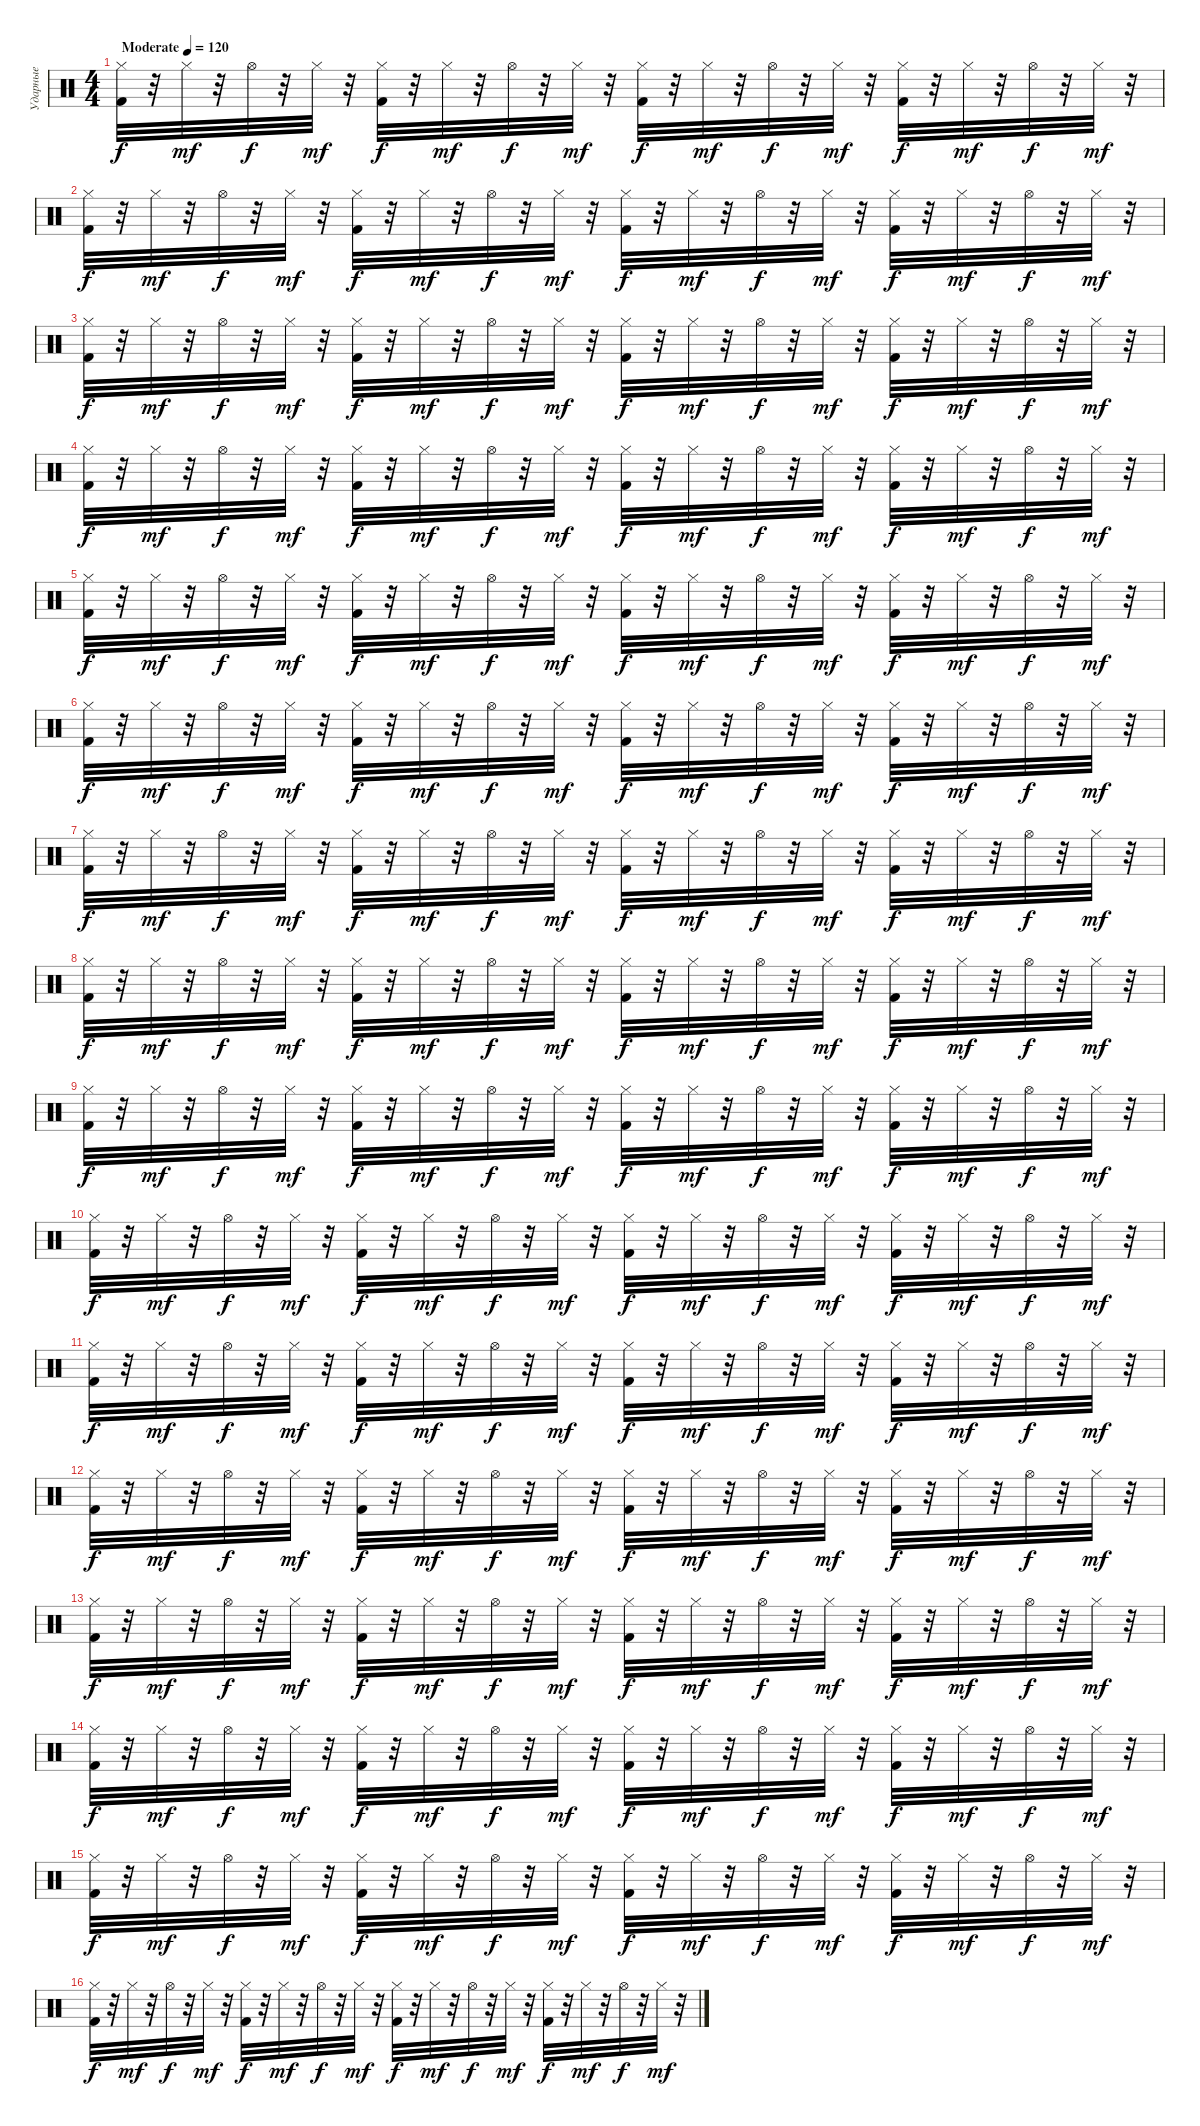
\track ("Ударные" "Ударные") {instrument percussion}
\staff {score}
\articulation defaults
\ts (4 4)
\tempo (120 "Moderate")
\clef neutral
\ks c
("Hi-Hat (closed)" "Kick (hit) 2").32{dy f} r.32 "Hi-Hat (closed)".32{dy mf} r.32 "Hi-Hat (open)".32{dy f} r.32 "Hi-Hat (closed)".32{dy mf} r.32 ("Hi-Hat (closed)" "Kick (hit) 2").32{dy f} r.32 "Hi-Hat (closed)".32{dy mf} r.32 "Hi-Hat (open)".32{dy f} r.32 "Hi-Hat (closed)".32{dy mf} r.32 ("Hi-Hat (closed)" "Kick (hit) 2").32{dy f} r.32 "Hi-Hat (closed)".32{dy mf} r.32 "Hi-Hat (open)".32{dy f} r.32 "Hi-Hat (closed)".32{dy mf} r.32 ("Hi-Hat (closed)" "Kick (hit) 2").32{dy f} r.32 "Hi-Hat (closed)".32{dy mf} r.32 "Hi-Hat (open)".32{dy f} r.32 "Hi-Hat (closed)".32{dy mf} r.32 |
("Hi-Hat (closed)" "Kick (hit) 2").32{dy f} r.32 "Hi-Hat (closed)".32{dy mf} r.32 "Hi-Hat (open)".32{dy f} r.32 "Hi-Hat (closed)".32{dy mf} r.32 ("Hi-Hat (closed)" "Kick (hit) 2").32{dy f} r.32 "Hi-Hat (closed)".32{dy mf} r.32 "Hi-Hat (open)".32{dy f} r.32 "Hi-Hat (closed)".32{dy mf} r.32 ("Hi-Hat (closed)" "Kick (hit) 2").32{dy f} r.32 "Hi-Hat (closed)".32{dy mf} r.32 "Hi-Hat (open)".32{dy f} r.32 "Hi-Hat (closed)".32{dy mf} r.32 ("Hi-Hat (closed)" "Kick (hit) 2").32{dy f} r.32 "Hi-Hat (closed)".32{dy mf} r.32 "Hi-Hat (open)".32{dy f} r.32 "Hi-Hat (closed)".32{dy mf} r.32 |
("Hi-Hat (closed)" "Kick (hit) 2").32{dy f} r.32 "Hi-Hat (closed)".32{dy mf} r.32 "Hi-Hat (open)".32{dy f} r.32 "Hi-Hat (closed)".32{dy mf} r.32 ("Hi-Hat (closed)" "Kick (hit) 2").32{dy f} r.32 "Hi-Hat (closed)".32{dy mf} r.32 "Hi-Hat (open)".32{dy f} r.32 "Hi-Hat (closed)".32{dy mf} r.32 ("Hi-Hat (closed)" "Kick (hit) 2").32{dy f} r.32 "Hi-Hat (closed)".32{dy mf} r.32 "Hi-Hat (open)".32{dy f} r.32 "Hi-Hat (closed)".32{dy mf} r.32 ("Hi-Hat (closed)" "Kick (hit) 2").32{dy f} r.32 "Hi-Hat (closed)".32{dy mf} r.32 "Hi-Hat (open)".32{dy f} r.32 "Hi-Hat (closed)".32{dy mf} r.32 |
("Hi-Hat (closed)" "Kick (hit) 2").32{dy f} r.32 "Hi-Hat (closed)".32{dy mf} r.32 "Hi-Hat (open)".32{dy f} r.32 "Hi-Hat (closed)".32{dy mf} r.32 ("Hi-Hat (closed)" "Kick (hit) 2").32{dy f} r.32 "Hi-Hat (closed)".32{dy mf} r.32 "Hi-Hat (open)".32{dy f} r.32 "Hi-Hat (closed)".32{dy mf} r.32 ("Hi-Hat (closed)" "Kick (hit) 2").32{dy f} r.32 "Hi-Hat (closed)".32{dy mf} r.32 "Hi-Hat (open)".32{dy f} r.32 "Hi-Hat (closed)".32{dy mf} r.32 ("Hi-Hat (closed)" "Kick (hit) 2").32{dy f} r.32 "Hi-Hat (closed)".32{dy mf} r.32 "Hi-Hat (open)".32{dy f} r.32 "Hi-Hat (closed)".32{dy mf} r.32 |
("Hi-Hat (closed)" "Kick (hit) 2").32{dy f} r.32 "Hi-Hat (closed)".32{dy mf} r.32 "Hi-Hat (open)".32{dy f} r.32 "Hi-Hat (closed)".32{dy mf} r.32 ("Hi-Hat (closed)" "Kick (hit) 2").32{dy f} r.32 "Hi-Hat (closed)".32{dy mf} r.32 "Hi-Hat (open)".32{dy f} r.32 "Hi-Hat (closed)".32{dy mf} r.32 ("Hi-Hat (closed)" "Kick (hit) 2").32{dy f} r.32 "Hi-Hat (closed)".32{dy mf} r.32 "Hi-Hat (open)".32{dy f} r.32 "Hi-Hat (closed)".32{dy mf} r.32 ("Hi-Hat (closed)" "Kick (hit) 2").32{dy f} r.32 "Hi-Hat (closed)".32{dy mf} r.32 "Hi-Hat (open)".32{dy f} r.32 "Hi-Hat (closed)".32{dy mf} r.32 |
("Hi-Hat (closed)" "Kick (hit) 2").32{dy f} r.32 "Hi-Hat (closed)".32{dy mf} r.32 "Hi-Hat (open)".32{dy f} r.32 "Hi-Hat (closed)".32{dy mf} r.32 ("Hi-Hat (closed)" "Kick (hit) 2").32{dy f} r.32 "Hi-Hat (closed)".32{dy mf} r.32 "Hi-Hat (open)".32{dy f} r.32 "Hi-Hat (closed)".32{dy mf} r.32 ("Hi-Hat (closed)" "Kick (hit) 2").32{dy f} r.32 "Hi-Hat (closed)".32{dy mf} r.32 "Hi-Hat (open)".32{dy f} r.32 "Hi-Hat (closed)".32{dy mf} r.32 ("Hi-Hat (closed)" "Kick (hit) 2").32{dy f} r.32 "Hi-Hat (closed)".32{dy mf} r.32 "Hi-Hat (open)".32{dy f} r.32 "Hi-Hat (closed)".32{dy mf} r.32 |
("Hi-Hat (closed)" "Kick (hit) 2").32{dy f} r.32 "Hi-Hat (closed)".32{dy mf} r.32 "Hi-Hat (open)".32{dy f} r.32 "Hi-Hat (closed)".32{dy mf} r.32 ("Hi-Hat (closed)" "Kick (hit) 2").32{dy f} r.32 "Hi-Hat (closed)".32{dy mf} r.32 "Hi-Hat (open)".32{dy f} r.32 "Hi-Hat (closed)".32{dy mf} r.32 ("Hi-Hat (closed)" "Kick (hit) 2").32{dy f} r.32 "Hi-Hat (closed)".32{dy mf} r.32 "Hi-Hat (open)".32{dy f} r.32 "Hi-Hat (closed)".32{dy mf} r.32 ("Hi-Hat (closed)" "Kick (hit) 2").32{dy f} r.32 "Hi-Hat (closed)".32{dy mf} r.32 "Hi-Hat (open)".32{dy f} r.32 "Hi-Hat (closed)".32{dy mf} r.32 |
("Hi-Hat (closed)" "Kick (hit) 2").32{dy f} r.32 "Hi-Hat (closed)".32{dy mf} r.32 "Hi-Hat (open)".32{dy f} r.32 "Hi-Hat (closed)".32{dy mf} r.32 ("Hi-Hat (closed)" "Kick (hit) 2").32{dy f} r.32 "Hi-Hat (closed)".32{dy mf} r.32 "Hi-Hat (open)".32{dy f} r.32 "Hi-Hat (closed)".32{dy mf} r.32 ("Hi-Hat (closed)" "Kick (hit) 2").32{dy f} r.32 "Hi-Hat (closed)".32{dy mf} r.32 "Hi-Hat (open)".32{dy f} r.32 "Hi-Hat (closed)".32{dy mf} r.32 ("Hi-Hat (closed)" "Kick (hit) 2").32{dy f} r.32 "Hi-Hat (closed)".32{dy mf} r.32 "Hi-Hat (open)".32{dy f} r.32 "Hi-Hat (closed)".32{dy mf} r.32 |
("Hi-Hat (closed)" "Kick (hit) 2").32{dy f} r.32 "Hi-Hat (closed)".32{dy mf} r.32 "Hi-Hat (open)".32{dy f} r.32 "Hi-Hat (closed)".32{dy mf} r.32 ("Hi-Hat (closed)" "Kick (hit) 2").32{dy f} r.32 "Hi-Hat (closed)".32{dy mf} r.32 "Hi-Hat (open)".32{dy f} r.32 "Hi-Hat (closed)".32{dy mf} r.32 ("Hi-Hat (closed)" "Kick (hit) 2").32{dy f} r.32 "Hi-Hat (closed)".32{dy mf} r.32 "Hi-Hat (open)".32{dy f} r.32 "Hi-Hat (closed)".32{dy mf} r.32 ("Hi-Hat (closed)" "Kick (hit) 2").32{dy f} r.32 "Hi-Hat (closed)".32{dy mf} r.32 "Hi-Hat (open)".32{dy f} r.32 "Hi-Hat (closed)".32{dy mf} r.32 |
("Hi-Hat (closed)" "Kick (hit) 2").32{dy f} r.32 "Hi-Hat (closed)".32{dy mf} r.32 "Hi-Hat (open)".32{dy f} r.32 "Hi-Hat (closed)".32{dy mf} r.32 ("Hi-Hat (closed)" "Kick (hit) 2").32{dy f} r.32 "Hi-Hat (closed)".32{dy mf} r.32 "Hi-Hat (open)".32{dy f} r.32 "Hi-Hat (closed)".32{dy mf} r.32 ("Hi-Hat (closed)" "Kick (hit) 2").32{dy f} r.32 "Hi-Hat (closed)".32{dy mf} r.32 "Hi-Hat (open)".32{dy f} r.32 "Hi-Hat (closed)".32{dy mf} r.32 ("Hi-Hat (closed)" "Kick (hit) 2").32{dy f} r.32 "Hi-Hat (closed)".32{dy mf} r.32 "Hi-Hat (open)".32{dy f} r.32 "Hi-Hat (closed)".32{dy mf} r.32 |
("Hi-Hat (closed)" "Kick (hit) 2").32{dy f} r.32 "Hi-Hat (closed)".32{dy mf} r.32 "Hi-Hat (open)".32{dy f} r.32 "Hi-Hat (closed)".32{dy mf} r.32 ("Hi-Hat (closed)" "Kick (hit) 2").32{dy f} r.32 "Hi-Hat (closed)".32{dy mf} r.32 "Hi-Hat (open)".32{dy f} r.32 "Hi-Hat (closed)".32{dy mf} r.32 ("Hi-Hat (closed)" "Kick (hit) 2").32{dy f} r.32 "Hi-Hat (closed)".32{dy mf} r.32 "Hi-Hat (open)".32{dy f} r.32 "Hi-Hat (closed)".32{dy mf} r.32 ("Hi-Hat (closed)" "Kick (hit) 2").32{dy f} r.32 "Hi-Hat (closed)".32{dy mf} r.32 "Hi-Hat (open)".32{dy f} r.32 "Hi-Hat (closed)".32{dy mf} r.32 |
("Hi-Hat (closed)" "Kick (hit) 2").32{dy f} r.32 "Hi-Hat (closed)".32{dy mf} r.32 "Hi-Hat (open)".32{dy f} r.32 "Hi-Hat (closed)".32{dy mf} r.32 ("Hi-Hat (closed)" "Kick (hit) 2").32{dy f} r.32 "Hi-Hat (closed)".32{dy mf} r.32 "Hi-Hat (open)".32{dy f} r.32 "Hi-Hat (closed)".32{dy mf} r.32 ("Hi-Hat (closed)" "Kick (hit) 2").32{dy f} r.32 "Hi-Hat (closed)".32{dy mf} r.32 "Hi-Hat (open)".32{dy f} r.32 "Hi-Hat (closed)".32{dy mf} r.32 ("Hi-Hat (closed)" "Kick (hit) 2").32{dy f} r.32 "Hi-Hat (closed)".32{dy mf} r.32 "Hi-Hat (open)".32{dy f} r.32 "Hi-Hat (closed)".32{dy mf} r.32 |
("Hi-Hat (closed)" "Kick (hit) 2").32{dy f} r.32 "Hi-Hat (closed)".32{dy mf} r.32 "Hi-Hat (open)".32{dy f} r.32 "Hi-Hat (closed)".32{dy mf} r.32 ("Hi-Hat (closed)" "Kick (hit) 2").32{dy f} r.32 "Hi-Hat (closed)".32{dy mf} r.32 "Hi-Hat (open)".32{dy f} r.32 "Hi-Hat (closed)".32{dy mf} r.32 ("Hi-Hat (closed)" "Kick (hit) 2").32{dy f} r.32 "Hi-Hat (closed)".32{dy mf} r.32 "Hi-Hat (open)".32{dy f} r.32 "Hi-Hat (closed)".32{dy mf} r.32 ("Hi-Hat (closed)" "Kick (hit) 2").32{dy f} r.32 "Hi-Hat (closed)".32{dy mf} r.32 "Hi-Hat (open)".32{dy f} r.32 "Hi-Hat (closed)".32{dy mf} r.32 |
("Hi-Hat (closed)" "Kick (hit) 2").32{dy f} r.32 "Hi-Hat (closed)".32{dy mf} r.32 "Hi-Hat (open)".32{dy f} r.32 "Hi-Hat (closed)".32{dy mf} r.32 ("Hi-Hat (closed)" "Kick (hit) 2").32{dy f} r.32 "Hi-Hat (closed)".32{dy mf} r.32 "Hi-Hat (open)".32{dy f} r.32 "Hi-Hat (closed)".32{dy mf} r.32 ("Hi-Hat (closed)" "Kick (hit) 2").32{dy f} r.32 "Hi-Hat (closed)".32{dy mf} r.32 "Hi-Hat (open)".32{dy f} r.32 "Hi-Hat (closed)".32{dy mf} r.32 ("Hi-Hat (closed)" "Kick (hit) 2").32{dy f} r.32 "Hi-Hat (closed)".32{dy mf} r.32 "Hi-Hat (open)".32{dy f} r.32 "Hi-Hat (closed)".32{dy mf} r.32 |
("Hi-Hat (closed)" "Kick (hit) 2").32{dy f} r.32 "Hi-Hat (closed)".32{dy mf} r.32 "Hi-Hat (open)".32{dy f} r.32 "Hi-Hat (closed)".32{dy mf} r.32 ("Hi-Hat (closed)" "Kick (hit) 2").32{dy f} r.32 "Hi-Hat (closed)".32{dy mf} r.32 "Hi-Hat (open)".32{dy f} r.32 "Hi-Hat (closed)".32{dy mf} r.32 ("Hi-Hat (closed)" "Kick (hit) 2").32{dy f} r.32 "Hi-Hat (closed)".32{dy mf} r.32 "Hi-Hat (open)".32{dy f} r.32 "Hi-Hat (closed)".32{dy mf} r.32 ("Hi-Hat (closed)" "Kick (hit) 2").32{dy f} r.32 "Hi-Hat (closed)".32{dy mf} r.32 "Hi-Hat (open)".32{dy f} r.32 "Hi-Hat (closed)".32{dy mf} r.32 |
("Hi-Hat (closed)" "Kick (hit) 2").32{dy f} r.32 "Hi-Hat (closed)".32{dy mf} r.32 "Hi-Hat (open)".32{dy f} r.32 "Hi-Hat (closed)".32{dy mf} r.32 ("Hi-Hat (closed)" "Kick (hit) 2").32{dy f} r.32 "Hi-Hat (closed)".32{dy mf} r.32 "Hi-Hat (open)".32{dy f} r.32 "Hi-Hat (closed)".32{dy mf} r.32 ("Hi-Hat (closed)" "Kick (hit) 2").32{dy f} r.32 "Hi-Hat (closed)".32{dy mf} r.32 "Hi-Hat (open)".32{dy f} r.32 "Hi-Hat (closed)".32{dy mf} r.32 ("Hi-Hat (closed)" "Kick (hit) 2").32{dy f} r.32 "Hi-Hat (closed)".32{dy mf} r.32 "Hi-Hat (open)".32{dy f} r.32 "Hi-Hat (closed)".32{dy mf} r.32
